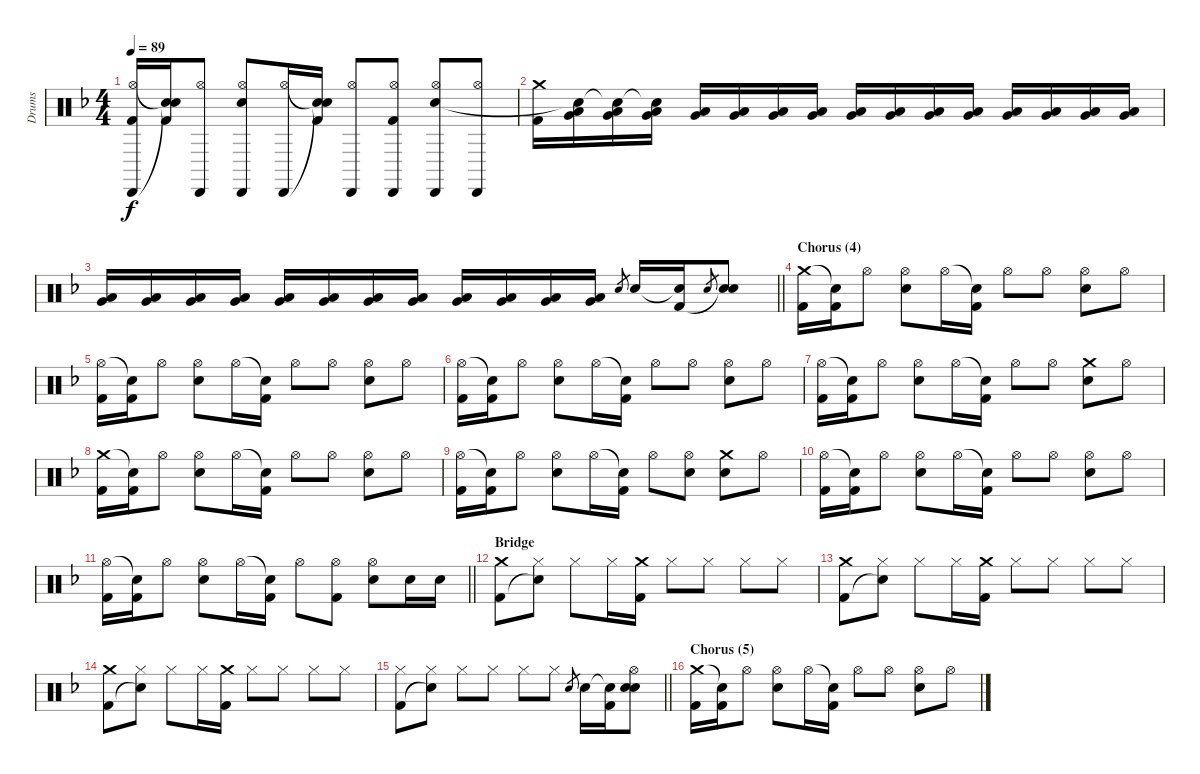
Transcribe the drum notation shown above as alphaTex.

\track ("Drums" "Drums") {instrument percussion}
\staff {score}
\articulation defaults
\ts (4 4)
\tempo 89
\clef neutral
\ks dminor
("Hi-Hat (open)" "Cabasa (hit)" "Kick (hit) 2").16{dy f} ("Snare (hit)"{t} "Snare (hit)"{t} "Kick (hit) 2").16 ("Hi-Hat (open)" "Cabasa (hit)").8 ("Hi-Hat (open)" "Cabasa (hit)" "Electric Snare (hit)").8 ("Hi-Hat (open)" "Cabasa (hit)").16 ("Snare (hit)"{t} "Snare (hit)"{t} "Kick (hit) 2").16 ("Hi-Hat (open)" "Cabasa (hit)").8 ("Hi-Hat (open)" "Cabasa (hit)" "Kick (hit) 2").8 ("Hi-Hat (open)" "Cabasa (hit)" "Electric Snare (hit)").8 ("Hi-Hat (open)" "Cabasa (hit)").8 |
("Crash medium (hit)" "Kick (hit) 2").16 ("Very Low Tom (hit)" "Low Floor Tom (hit)" "Snare (hit)"{t}).16 ("Very Low Tom (hit)" "Low Floor Tom (hit)" "Snare (hit)"{t}).16 ("Very Low Tom (hit)" "Low Floor Tom (hit)" "Snare (hit)"{t}).16 ("Very Low Tom (hit)" "Low Floor Tom (hit)").16 ("Very Low Tom (hit)" "Low Floor Tom (hit)").16 ("Very Low Tom (hit)" "Low Floor Tom (hit)").16 ("Very Low Tom (hit)" "Low Floor Tom (hit)").16 ("Very Low Tom (hit)" "Low Floor Tom (hit)").16 ("Very Low Tom (hit)" "Low Floor Tom (hit)").16 ("Very Low Tom (hit)" "Low Floor Tom (hit)").16 ("Very Low Tom (hit)" "Low Floor Tom (hit)").16 ("Very Low Tom (hit)" "Low Floor Tom (hit)").16 ("Very Low Tom (hit)" "Low Floor Tom (hit)").16 ("Very Low Tom (hit)" "Low Floor Tom (hit)").16 ("Very Low Tom (hit)" "Low Floor Tom (hit)").16 |
\barLineRight lightlight
("Very Low Tom (hit)" "Low Floor Tom (hit)").16 ("Very Low Tom (hit)" "Low Floor Tom (hit)").16 ("Very Low Tom (hit)" "Low Floor Tom (hit)").16 ("Very Low Tom (hit)" "Low Floor Tom (hit)").16 ("Very Low Tom (hit)" "Low Floor Tom (hit)").16 ("Very Low Tom (hit)" "Low Floor Tom (hit)").16 ("Very Low Tom (hit)" "Low Floor Tom (hit)").16 ("Very Low Tom (hit)" "Low Floor Tom (hit)").16 ("Very Low Tom (hit)" "Low Floor Tom (hit)").16 ("Very Low Tom (hit)" "Low Floor Tom (hit)").16 ("Very Low Tom (hit)" "Low Floor Tom (hit)").16 ("Very Low Tom (hit)" "Low Floor Tom (hit)").16 "Electric Snare (hit)".8{gr} "Electric Snare (hit)".16 ("Snare (hit)"{t} "Kick (hit) 2").16 "Electric Snare (hit)".8{gr} ("Electric Snare (hit)" "Snare (hit)"{t}).8 |
\section ("" "Chorus (4)")
("Crash medium (hit)" "Kick (hit) 2").16 ("Snare (hit)"{t} "Kick (hit) 2").16 "Hi-Hat (open)".8 ("Hi-Hat (open)" "Electric Snare (hit)").8 "Hi-Hat (open)".16 ("Snare (hit)"{t} "Kick (hit) 2").16 "Hi-Hat (open)".8 "Hi-Hat (open)".8 ("Hi-Hat (open)" "Electric Snare (hit)").8 "Hi-Hat (open)".8 |
("Hi-Hat (open)" "Kick (hit) 2").16 ("Snare (hit)"{t} "Kick (hit) 2").16 "Hi-Hat (open)".8 ("Hi-Hat (open)" "Electric Snare (hit)").8 "Hi-Hat (open)".16 ("Snare (hit)"{t} "Kick (hit) 2").16 "Hi-Hat (open)".8 "Hi-Hat (open)".8 ("Hi-Hat (open)" "Electric Snare (hit)").8 "Hi-Hat (open)".8 |
("Hi-Hat (open)" "Kick (hit) 2").16 ("Snare (hit)"{t} "Kick (hit) 2").16 "Hi-Hat (open)".8 ("Hi-Hat (open)" "Electric Snare (hit)").8 "Hi-Hat (open)".16 ("Snare (hit)"{t} "Kick (hit) 2").16 "Hi-Hat (open)".8 "Hi-Hat (open)".8 ("Hi-Hat (open)" "Electric Snare (hit)").8 "Hi-Hat (open)".8 |
("Hi-Hat (open)" "Kick (hit) 2").16 ("Snare (hit)"{t} "Kick (hit) 2").16 "Hi-Hat (open)".8 ("Hi-Hat (open)" "Electric Snare (hit)").8 "Hi-Hat (open)".16 ("Snare (hit)"{t} "Kick (hit) 2").16 "Hi-Hat (open)".8 "Hi-Hat (open)".8 ("Crash medium (hit)" "Electric Snare (hit)").8 "Hi-Hat (open)".8 |
("Crash medium (hit)" "Kick (hit) 2").16 ("Snare (hit)"{t} "Kick (hit) 2").16 "Hi-Hat (open)".8 ("Hi-Hat (open)" "Electric Snare (hit)").8 "Hi-Hat (open)".16 ("Snare (hit)"{t} "Kick (hit) 2").16 "Hi-Hat (open)".8 "Hi-Hat (open)".8 ("Hi-Hat (open)" "Electric Snare (hit)").8 "Hi-Hat (open)".8 |
("Hi-Hat (open)" "Kick (hit) 2").16 ("Snare (hit)"{t} "Kick (hit) 2").16 "Hi-Hat (open)".8 ("Hi-Hat (open)" "Electric Snare (hit)").8 "Hi-Hat (open)".16 ("Snare (hit)"{t} "Kick (hit) 2").16 "Hi-Hat (open)".8 ("Hi-Hat (open)" "Electric Snare (hit)").8 ("Crash medium (hit)" "Electric Snare (hit)").8 "Hi-Hat (open)".8 |
("Hi-Hat (open)" "Kick (hit) 2").16 ("Snare (hit)"{t} "Kick (hit) 2").16 "Hi-Hat (open)".8 ("Hi-Hat (open)" "Electric Snare (hit)").8 "Hi-Hat (open)".16 ("Snare (hit)"{t} "Kick (hit) 2").16 "Hi-Hat (open)".8 "Hi-Hat (open)".8 ("Hi-Hat (open)" "Electric Snare (hit)").8 "Hi-Hat (open)".8 |
\barLineRight lightlight
("Hi-Hat (open)" "Kick (hit) 2").16 ("Snare (hit)"{t} "Kick (hit) 2").16 "Hi-Hat (open)".8 ("Hi-Hat (open)" "Electric Snare (hit)").8 "Hi-Hat (open)".16 ("Snare (hit)"{t} "Kick (hit) 2").16 "Hi-Hat (open)".8 ("Hi-Hat (open)" "Kick (hit) 2").8 ("Hi-Hat (open)" "Electric Snare (hit)").8 "Electric Snare (hit)".16 "Electric Snare (hit)".16 |
\section ("" "Bridge")
("Crash medium (hit)" "Kick (hit) 2").8 ("Hi-Hat (closed)" "Snare (hit)"{t}).8 "Hi-Hat (closed)".8 "Hi-Hat (closed)".16 ("Crash medium (hit)" "Kick (hit) 2").16 "Hi-Hat (closed)".8 "Hi-Hat (closed)".8 "Hi-Hat (closed)".8 "Hi-Hat (closed)".8 |
("Crash medium (hit)" "Kick (hit) 2").8 ("Hi-Hat (closed)" "Snare (hit)"{t}).8 "Hi-Hat (closed)".8 "Hi-Hat (closed)".16 ("Crash medium (hit)" "Kick (hit) 2").16 "Hi-Hat (closed)".8 "Hi-Hat (closed)".8 "Hi-Hat (closed)".8 "Hi-Hat (closed)".8 |
("Crash medium (hit)" "Kick (hit) 2").8 ("Hi-Hat (closed)" "Snare (hit)"{t}).8 "Hi-Hat (closed)".8 "Hi-Hat (closed)".16 ("Crash medium (hit)" "Kick (hit) 2").16 "Hi-Hat (closed)".8 "Hi-Hat (closed)".8 "Hi-Hat (closed)".8 "Hi-Hat (closed)".8 |
\barLineRight lightlight
("Hi-Hat (closed)" "Kick (hit) 2").8 ("Hi-Hat (closed)" "Snare (hit)"{t}).8 "Hi-Hat (closed)".8 "Hi-Hat (closed)".8 "Hi-Hat (closed)".8 "Hi-Hat (closed)".8 "Electric Snare (hit)".8{gr} "Electric Snare (hit)".16 ("Snare (hit)"{t} "Kick (hit) 2").16 ("Hi-Hat (open)" "Electric Snare (hit)" "Snare (hit)").8 |
\section ("" "Chorus (5)")
("Crash medium (hit)" "Kick (hit) 2").16 ("Snare (hit)"{t} "Kick (hit) 2").16 "Hi-Hat (open)".8 ("Hi-Hat (open)" "Electric Snare (hit)").8 "Hi-Hat (open)".16 ("Snare (hit)"{t} "Kick (hit) 2").16 "Hi-Hat (open)".8 "Hi-Hat (open)".8 ("Hi-Hat (open)" "Electric Snare (hit)").8 "Hi-Hat (open)".8
